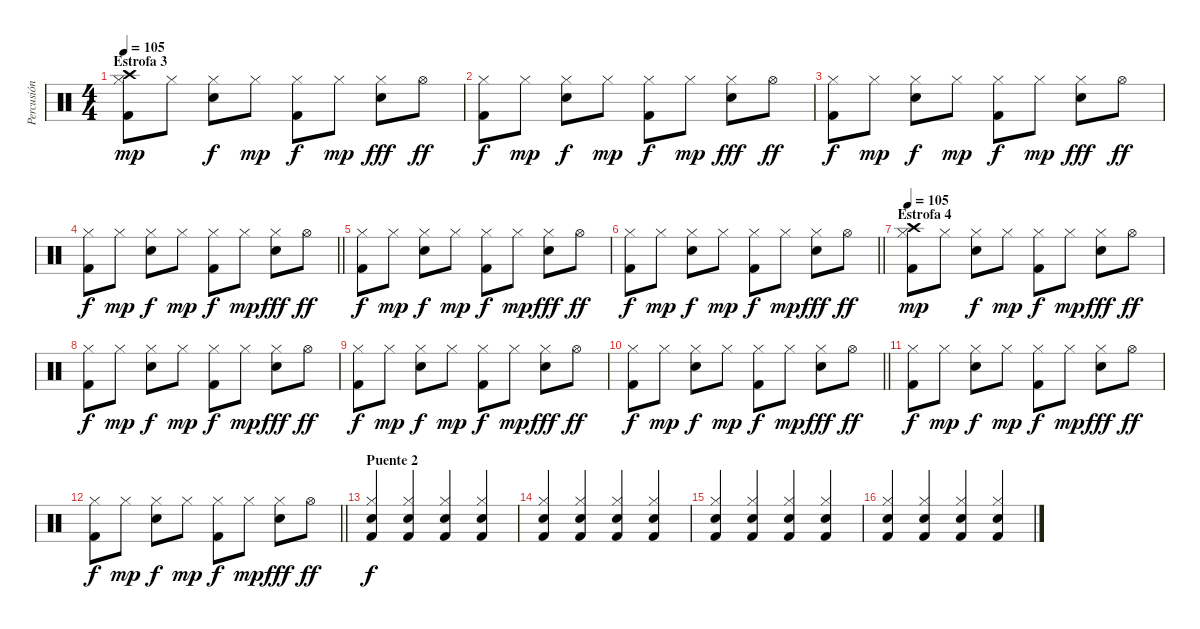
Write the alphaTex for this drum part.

\track ("Percusión" "Percusión") {instrument percussion}
\staff {score}
\articulation defaults
\ts (4 4)
\section ("" "Estrofa 3")
\tempo 105
\clef neutral
\ks c
("Crash high (hit)" "Kick (hit) 2" "Hi-Hat (closed)").8{dy mp} "Hi-Hat (closed)".8 ("Snare (hit) 2" "Hi-Hat (closed)").8{dy f} "Hi-Hat (closed)".8{dy mp} ("Kick (hit) 2" "Hi-Hat (closed)").8{dy f} "Hi-Hat (closed)".8{dy mp} ("Snare (hit) 2" "Hi-Hat (closed)").8{dy fff} "Hi-Hat (open)".8{dy ff} |
("Kick (hit) 2" "Hi-Hat (closed)").8{dy f} "Hi-Hat (closed)".8{dy mp} ("Snare (hit) 2" "Hi-Hat (closed)").8{dy f} "Hi-Hat (closed)".8{dy mp} ("Kick (hit) 2" "Hi-Hat (closed)").8{dy f} "Hi-Hat (closed)".8{dy mp} ("Snare (hit) 2" "Hi-Hat (closed)").8{dy fff} "Hi-Hat (open)".8{dy ff} |
("Kick (hit) 2" "Hi-Hat (closed)").8{dy f} "Hi-Hat (closed)".8{dy mp} ("Snare (hit) 2" "Hi-Hat (closed)").8{dy f} "Hi-Hat (closed)".8{dy mp} ("Kick (hit) 2" "Hi-Hat (closed)").8{dy f} "Hi-Hat (closed)".8{dy mp} ("Snare (hit) 2" "Hi-Hat (closed)").8{dy fff} "Hi-Hat (open)".8{dy ff} |
\barLineRight lightlight
("Kick (hit) 2" "Hi-Hat (closed)").8{dy f} "Hi-Hat (closed)".8{dy mp} ("Snare (hit) 2" "Hi-Hat (closed)").8{dy f} "Hi-Hat (closed)".8{dy mp} ("Kick (hit) 2" "Hi-Hat (closed)").8{dy f} "Hi-Hat (closed)".8{dy mp} ("Snare (hit) 2" "Hi-Hat (closed)").8{dy fff} "Hi-Hat (open)".8{dy ff} |
("Kick (hit) 2" "Hi-Hat (closed)").8{dy f} "Hi-Hat (closed)".8{dy mp} ("Snare (hit) 2" "Hi-Hat (closed)").8{dy f} "Hi-Hat (closed)".8{dy mp} ("Kick (hit) 2" "Hi-Hat (closed)").8{dy f} "Hi-Hat (closed)".8{dy mp} ("Snare (hit) 2" "Hi-Hat (closed)").8{dy fff} "Hi-Hat (open)".8{dy ff} |
\barLineRight lightlight
("Kick (hit) 2" "Hi-Hat (closed)").8{dy f} "Hi-Hat (closed)".8{dy mp} ("Snare (hit) 2" "Hi-Hat (closed)").8{dy f} "Hi-Hat (closed)".8{dy mp} ("Kick (hit) 2" "Hi-Hat (closed)").8{dy f} "Hi-Hat (closed)".8{dy mp} ("Snare (hit) 2" "Hi-Hat (closed)").8{dy fff} "Hi-Hat (open)".8{dy ff} |
\section ("" "Estrofa 4")
\tempo 105
("Crash high (hit)" "Kick (hit) 2" "Hi-Hat (closed)").8{dy mp} "Hi-Hat (closed)".8 ("Snare (hit) 2" "Hi-Hat (closed)").8{dy f} "Hi-Hat (closed)".8{dy mp} ("Kick (hit) 2" "Hi-Hat (closed)").8{dy f} "Hi-Hat (closed)".8{dy mp} ("Snare (hit) 2" "Hi-Hat (closed)").8{dy fff} "Hi-Hat (open)".8{dy ff} |
("Kick (hit) 2" "Hi-Hat (closed)").8{dy f} "Hi-Hat (closed)".8{dy mp} ("Snare (hit) 2" "Hi-Hat (closed)").8{dy f} "Hi-Hat (closed)".8{dy mp} ("Kick (hit) 2" "Hi-Hat (closed)").8{dy f} "Hi-Hat (closed)".8{dy mp} ("Snare (hit) 2" "Hi-Hat (closed)").8{dy fff} "Hi-Hat (open)".8{dy ff} |
("Kick (hit) 2" "Hi-Hat (closed)").8{dy f} "Hi-Hat (closed)".8{dy mp} ("Snare (hit) 2" "Hi-Hat (closed)").8{dy f} "Hi-Hat (closed)".8{dy mp} ("Kick (hit) 2" "Hi-Hat (closed)").8{dy f} "Hi-Hat (closed)".8{dy mp} ("Snare (hit) 2" "Hi-Hat (closed)").8{dy fff} "Hi-Hat (open)".8{dy ff} |
\barLineRight lightlight
("Kick (hit) 2" "Hi-Hat (closed)").8{dy f} "Hi-Hat (closed)".8{dy mp} ("Snare (hit) 2" "Hi-Hat (closed)").8{dy f} "Hi-Hat (closed)".8{dy mp} ("Kick (hit) 2" "Hi-Hat (closed)").8{dy f} "Hi-Hat (closed)".8{dy mp} ("Snare (hit) 2" "Hi-Hat (closed)").8{dy fff} "Hi-Hat (open)".8{dy ff} |
("Kick (hit) 2" "Hi-Hat (closed)").8{dy f} "Hi-Hat (closed)".8{dy mp} ("Snare (hit) 2" "Hi-Hat (closed)").8{dy f} "Hi-Hat (closed)".8{dy mp} ("Kick (hit) 2" "Hi-Hat (closed)").8{dy f} "Hi-Hat (closed)".8{dy mp} ("Snare (hit) 2" "Hi-Hat (closed)").8{dy fff} "Hi-Hat (open)".8{dy ff} |
\barLineRight lightlight
("Kick (hit) 2" "Hi-Hat (closed)").8{dy f} "Hi-Hat (closed)".8{dy mp} ("Snare (hit) 2" "Hi-Hat (closed)").8{dy f} "Hi-Hat (closed)".8{dy mp} ("Kick (hit) 2" "Hi-Hat (closed)").8{dy f} "Hi-Hat (closed)".8{dy mp} ("Snare (hit) 2" "Hi-Hat (closed)").8{dy fff} "Hi-Hat (open)".8{dy ff} |
\section ("" "Puente 2")
("Snare (hit) 2" "Kick (hit) 2" "Hi-Hat (closed)").4{dy f} ("Snare (hit) 2" "Kick (hit) 2" "Hi-Hat (closed)").4 ("Snare (hit) 2" "Kick (hit) 2" "Hi-Hat (closed)").4 ("Snare (hit) 2" "Kick (hit) 2" "Hi-Hat (closed)").4 |
("Snare (hit) 2" "Kick (hit) 2" "Hi-Hat (closed)").4 ("Snare (hit) 2" "Kick (hit) 2" "Hi-Hat (closed)").4 ("Snare (hit) 2" "Kick (hit) 2" "Hi-Hat (closed)").4 ("Snare (hit) 2" "Kick (hit) 2" "Hi-Hat (closed)").4 |
("Snare (hit) 2" "Kick (hit) 2" "Hi-Hat (closed)").4 ("Snare (hit) 2" "Kick (hit) 2" "Hi-Hat (closed)").4 ("Snare (hit) 2" "Kick (hit) 2" "Hi-Hat (closed)").4 ("Snare (hit) 2" "Kick (hit) 2" "Hi-Hat (closed)").4 |
("Snare (hit) 2" "Kick (hit) 2" "Hi-Hat (closed)").4 ("Snare (hit) 2" "Kick (hit) 2" "Hi-Hat (closed)").4 ("Snare (hit) 2" "Kick (hit) 2" "Hi-Hat (closed)").4 ("Snare (hit) 2" "Kick (hit) 2" "Hi-Hat (closed)").4
